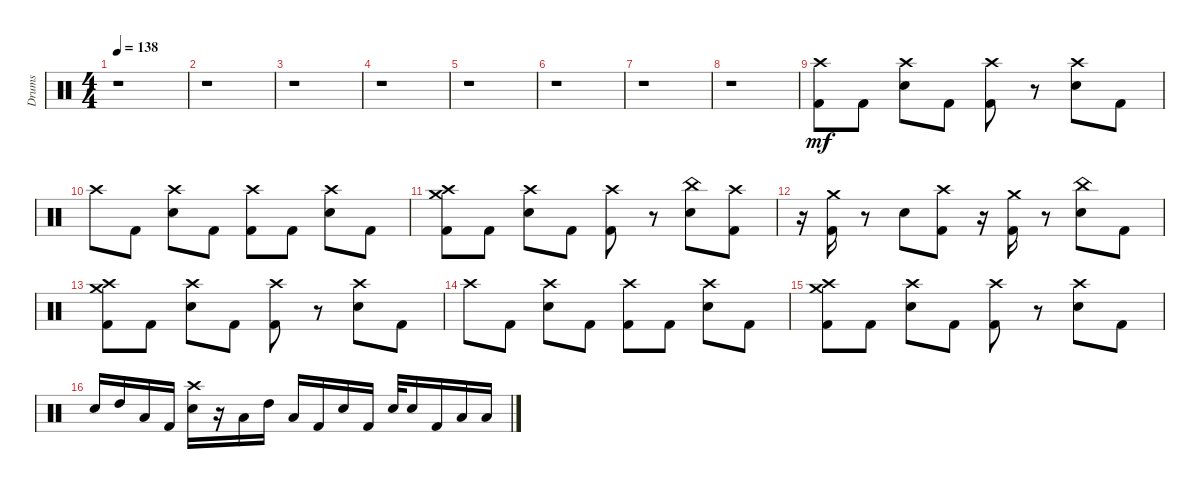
\track ("Drums" "Drums") {instrument percussion}
\staff {score}
\articulation defaults
\ts (4 4)
\tempo 138
\clef neutral
\ks c
r.1{dy mf} |
r.1 |
r.1 |
r.1 |
r.1 |
r.1 |
r.1 |
r.1 |
("Crash high (hit)" "Kick (hit) 2").8 "Kick (hit) 2".8 ("Crash high (hit)" "Snare (hit) 2").8 "Kick (hit) 2".8 ("Crash high (hit)" "Kick (hit) 2").8 r.8 ("Crash high (hit)" "Snare (hit) 2").8 "Kick (hit) 2".8 |
"Crash high (hit)".8 "Kick (hit) 2".8 ("Crash high (hit)" "Snare (hit) 2").8 "Kick (hit) 2".8 ("Crash high (hit)" "Kick (hit) 2").8 "Kick (hit) 2".8 ("Crash high (hit)" "Snare (hit) 2").8 "Kick (hit) 2".8 |
("Crash high (hit)" "Crash medium (hit)" "Kick (hit) 2").8 "Kick (hit) 2".8 ("Crash high (hit)" "Snare (hit) 2").8 "Kick (hit) 2".8 ("Crash high (hit)" "Kick (hit) 2").8 r.8 ("China (hit)" "Snare (hit) 2").8 ("Crash high (hit)" "Kick (hit) 2").8 |
r.16 ("Crash medium (hit)" "Kick (hit) 2").16 r.8 "Snare (hit) 2".8 ("Crash high (hit)" "Kick (hit) 2").8 r.16 ("Crash medium (hit)" "Kick (hit) 2").16 r.8 ("China (hit)" "Snare (hit) 2").8 "Kick (hit) 2".8 |
("Crash high (hit)" "Crash medium (hit)" "Kick (hit) 2").8 "Kick (hit) 2".8 ("Crash high (hit)" "Snare (hit) 2").8 "Kick (hit) 2".8 ("Crash high (hit)" "Kick (hit) 2").8 r.8 ("Crash high (hit)" "Snare (hit) 2").8 "Kick (hit) 2".8 |
"Crash high (hit)".8 "Kick (hit) 2".8 ("Crash high (hit)" "Snare (hit) 2").8 "Kick (hit) 2".8 ("Crash high (hit)" "Kick (hit) 2").8 "Kick (hit) 2".8 ("Crash high (hit)" "Snare (hit) 2").8 "Kick (hit) 2".8 |
("Crash high (hit)" "Crash medium (hit)" "Kick (hit) 2").8 "Kick (hit) 2".8 ("Crash high (hit)" "Snare (hit) 2").8 "Kick (hit) 2".8 ("Crash high (hit)" "Kick (hit) 2").8 r.8 ("Crash high (hit)" "Snare (hit) 2").8 "Kick (hit) 2".8 |
"Snare (hit) 2".16 "High Tom (hit)".16 "Low Tom (hit)".16 "Kick (hit) 2".16 ("Crash high (hit)" "Snare (hit) 2").16 r.16 "Low Tom (hit)".16 "High Tom (hit)".16 "Low Tom (hit)".16 "Kick (hit) 2".16 "Snare (hit) 2".16 "Kick (hit) 2".16 "Snare (hit) 2".32 "Snare (hit) 2".16 "Kick (hit) 2".16 "Low Tom (hit)".16 "Low Tom (hit)".16
